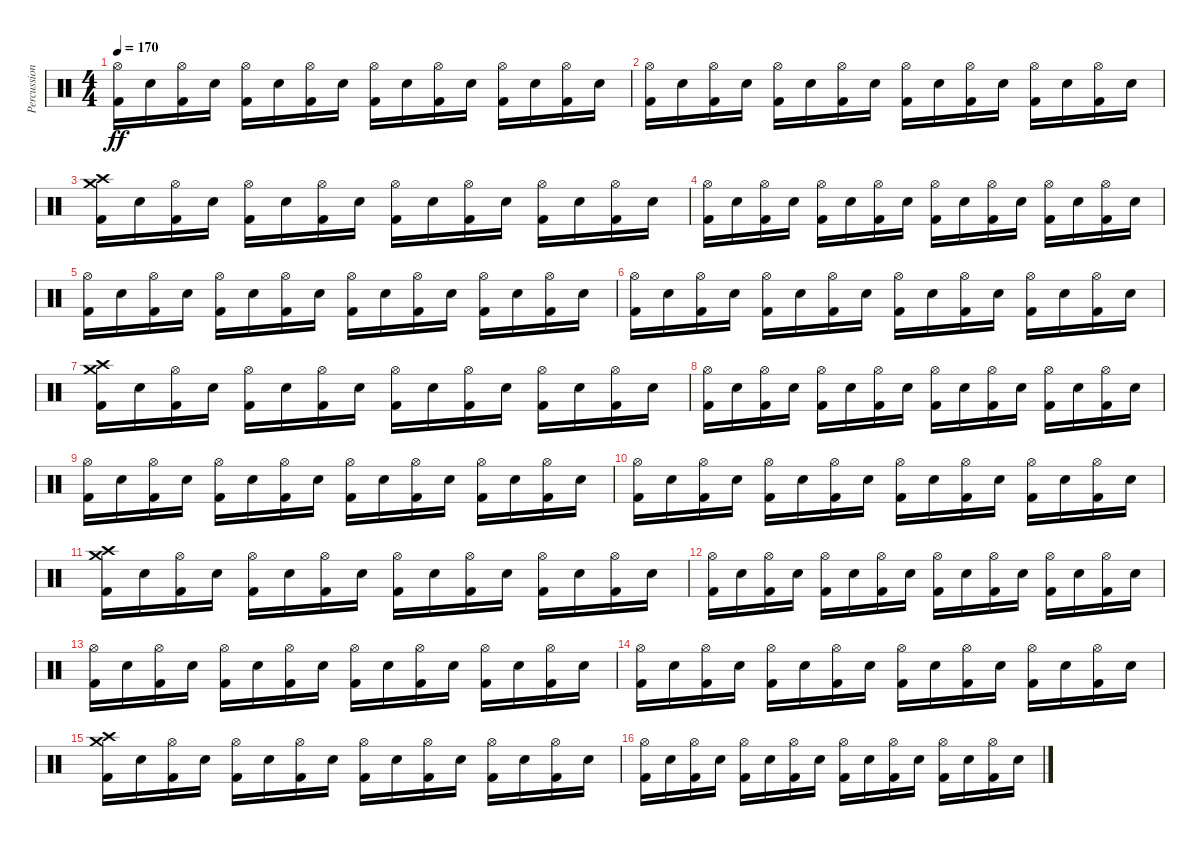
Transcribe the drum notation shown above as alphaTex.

\track ("Percussion" "Percussion") {instrument percussion}
\staff {score}
\articulation defaults
\ts (4 4)
\tempo 170
\clef neutral
\ks c
("Kick (hit) 2" "Hi-Hat (open)").16{dy ff} "Electric Snare (hit)".16 ("Kick (hit) 2" "Hi-Hat (open)").16 "Electric Snare (hit)".16 ("Kick (hit) 2" "Hi-Hat (open)").16 "Electric Snare (hit)".16 ("Kick (hit) 2" "Hi-Hat (open)").16 "Electric Snare (hit)".16 ("Kick (hit) 2" "Hi-Hat (open)").16 "Electric Snare (hit)".16 ("Kick (hit) 2" "Hi-Hat (open)").16 "Electric Snare (hit)".16 ("Kick (hit) 2" "Hi-Hat (open)").16 "Electric Snare (hit)".16 ("Kick (hit) 2" "Hi-Hat (open)").16 "Electric Snare (hit)".16 |
("Kick (hit) 2" "Hi-Hat (open)").16 "Electric Snare (hit)".16 ("Kick (hit) 2" "Hi-Hat (open)").16 "Electric Snare (hit)".16 ("Kick (hit) 2" "Hi-Hat (open)").16 "Electric Snare (hit)".16 ("Kick (hit) 2" "Hi-Hat (open)").16 "Electric Snare (hit)".16 ("Kick (hit) 2" "Hi-Hat (open)").16 "Electric Snare (hit)".16 ("Kick (hit) 2" "Hi-Hat (open)").16 "Electric Snare (hit)".16 ("Kick (hit) 2" "Hi-Hat (open)").16 "Electric Snare (hit)".16 ("Kick (hit) 2" "Hi-Hat (open)").16 "Electric Snare (hit)".16 |
("Kick (hit) 2" "Crash high (hit)" "Crash medium (hit)").16 "Electric Snare (hit)".16 ("Kick (hit) 2" "Hi-Hat (open)").16 "Electric Snare (hit)".16 ("Kick (hit) 2" "Hi-Hat (open)").16 "Electric Snare (hit)".16 ("Kick (hit) 2" "Hi-Hat (open)").16 "Electric Snare (hit)".16 ("Kick (hit) 2" "Hi-Hat (open)").16 "Electric Snare (hit)".16 ("Kick (hit) 2" "Hi-Hat (open)").16 "Electric Snare (hit)".16 ("Kick (hit) 2" "Hi-Hat (open)").16 "Electric Snare (hit)".16 ("Kick (hit) 2" "Hi-Hat (open)").16 "Electric Snare (hit)".16 |
("Kick (hit) 2" "Hi-Hat (open)").16 "Electric Snare (hit)".16 ("Kick (hit) 2" "Hi-Hat (open)").16 "Electric Snare (hit)".16 ("Kick (hit) 2" "Hi-Hat (open)").16 "Electric Snare (hit)".16 ("Kick (hit) 2" "Hi-Hat (open)").16 "Electric Snare (hit)".16 ("Kick (hit) 2" "Hi-Hat (open)").16 "Electric Snare (hit)".16 ("Kick (hit) 2" "Hi-Hat (open)").16 "Electric Snare (hit)".16 ("Kick (hit) 2" "Hi-Hat (open)").16 "Electric Snare (hit)".16 ("Kick (hit) 2" "Hi-Hat (open)").16 "Electric Snare (hit)".16 |
("Kick (hit) 2" "Hi-Hat (open)").16 "Electric Snare (hit)".16 ("Kick (hit) 2" "Hi-Hat (open)").16 "Electric Snare (hit)".16 ("Kick (hit) 2" "Hi-Hat (open)").16 "Electric Snare (hit)".16 ("Kick (hit) 2" "Hi-Hat (open)").16 "Electric Snare (hit)".16 ("Kick (hit) 2" "Hi-Hat (open)").16 "Electric Snare (hit)".16 ("Kick (hit) 2" "Hi-Hat (open)").16 "Electric Snare (hit)".16 ("Kick (hit) 2" "Hi-Hat (open)").16 "Electric Snare (hit)".16 ("Kick (hit) 2" "Hi-Hat (open)").16 "Electric Snare (hit)".16 |
("Kick (hit) 2" "Hi-Hat (open)").16 "Electric Snare (hit)".16 ("Kick (hit) 2" "Hi-Hat (open)").16 "Electric Snare (hit)".16 ("Kick (hit) 2" "Hi-Hat (open)").16 "Electric Snare (hit)".16 ("Kick (hit) 2" "Hi-Hat (open)").16 "Electric Snare (hit)".16 ("Kick (hit) 2" "Hi-Hat (open)").16 "Electric Snare (hit)".16 ("Kick (hit) 2" "Hi-Hat (open)").16 "Electric Snare (hit)".16 ("Kick (hit) 2" "Hi-Hat (open)").16 "Electric Snare (hit)".16 ("Kick (hit) 2" "Hi-Hat (open)").16 "Electric Snare (hit)".16 |
("Kick (hit) 2" "Crash medium (hit)" "Crash high (hit)").16 "Electric Snare (hit)".16 ("Kick (hit) 2" "Hi-Hat (open)").16 "Electric Snare (hit)".16 ("Kick (hit) 2" "Hi-Hat (open)").16 "Electric Snare (hit)".16 ("Kick (hit) 2" "Hi-Hat (open)").16 "Electric Snare (hit)".16 ("Kick (hit) 2" "Hi-Hat (open)").16 "Electric Snare (hit)".16 ("Kick (hit) 2" "Hi-Hat (open)").16 "Electric Snare (hit)".16 ("Kick (hit) 2" "Hi-Hat (open)").16 "Electric Snare (hit)".16 ("Kick (hit) 2" "Hi-Hat (open)").16 "Electric Snare (hit)".16 |
("Kick (hit) 2" "Hi-Hat (open)").16 "Electric Snare (hit)".16 ("Kick (hit) 2" "Hi-Hat (open)").16 "Electric Snare (hit)".16 ("Kick (hit) 2" "Hi-Hat (open)").16 "Electric Snare (hit)".16 ("Kick (hit) 2" "Hi-Hat (open)").16 "Electric Snare (hit)".16 ("Kick (hit) 2" "Hi-Hat (open)").16 "Electric Snare (hit)".16 ("Kick (hit) 2" "Hi-Hat (open)").16 "Electric Snare (hit)".16 ("Kick (hit) 2" "Hi-Hat (open)").16 "Electric Snare (hit)".16 ("Kick (hit) 2" "Hi-Hat (open)").16 "Electric Snare (hit)".16 |
("Kick (hit) 2" "Hi-Hat (open)").16 "Electric Snare (hit)".16 ("Kick (hit) 2" "Hi-Hat (open)").16 "Electric Snare (hit)".16 ("Kick (hit) 2" "Hi-Hat (open)").16 "Electric Snare (hit)".16 ("Kick (hit) 2" "Hi-Hat (open)").16 "Electric Snare (hit)".16 ("Kick (hit) 2" "Hi-Hat (open)").16 "Electric Snare (hit)".16 ("Kick (hit) 2" "Hi-Hat (open)").16 "Electric Snare (hit)".16 ("Kick (hit) 2" "Hi-Hat (open)").16 "Electric Snare (hit)".16 ("Kick (hit) 2" "Hi-Hat (open)").16 "Electric Snare (hit)".16 |
("Kick (hit) 2" "Hi-Hat (open)").16 "Electric Snare (hit)".16 ("Kick (hit) 2" "Hi-Hat (open)").16 "Electric Snare (hit)".16 ("Kick (hit) 2" "Hi-Hat (open)").16 "Electric Snare (hit)".16 ("Kick (hit) 2" "Hi-Hat (open)").16 "Electric Snare (hit)".16 ("Kick (hit) 2" "Hi-Hat (open)").16 "Electric Snare (hit)".16 ("Kick (hit) 2" "Hi-Hat (open)").16 "Electric Snare (hit)".16 ("Kick (hit) 2" "Hi-Hat (open)").16 "Electric Snare (hit)".16 ("Kick (hit) 2" "Hi-Hat (open)").16 "Electric Snare (hit)".16 |
("Kick (hit) 2" "Crash high (hit)" "Crash medium (hit)").16 "Electric Snare (hit)".16 ("Kick (hit) 2" "Hi-Hat (open)").16 "Electric Snare (hit)".16 ("Kick (hit) 2" "Hi-Hat (open)").16 "Electric Snare (hit)".16 ("Kick (hit) 2" "Hi-Hat (open)").16 "Electric Snare (hit)".16 ("Kick (hit) 2" "Hi-Hat (open)").16 "Electric Snare (hit)".16 ("Kick (hit) 2" "Hi-Hat (open)").16 "Electric Snare (hit)".16 ("Kick (hit) 2" "Hi-Hat (open)").16 "Electric Snare (hit)".16 ("Kick (hit) 2" "Hi-Hat (open)").16 "Electric Snare (hit)".16 |
("Kick (hit) 2" "Hi-Hat (open)").16 "Electric Snare (hit)".16 ("Kick (hit) 2" "Hi-Hat (open)").16 "Electric Snare (hit)".16 ("Kick (hit) 2" "Hi-Hat (open)").16 "Electric Snare (hit)".16 ("Kick (hit) 2" "Hi-Hat (open)").16 "Electric Snare (hit)".16 ("Kick (hit) 2" "Hi-Hat (open)").16 "Electric Snare (hit)".16 ("Kick (hit) 2" "Hi-Hat (open)").16 "Electric Snare (hit)".16 ("Kick (hit) 2" "Hi-Hat (open)").16 "Electric Snare (hit)".16 ("Kick (hit) 2" "Hi-Hat (open)").16 "Electric Snare (hit)".16 |
("Kick (hit) 2" "Hi-Hat (open)").16 "Electric Snare (hit)".16 ("Kick (hit) 2" "Hi-Hat (open)").16 "Electric Snare (hit)".16 ("Kick (hit) 2" "Hi-Hat (open)").16 "Electric Snare (hit)".16 ("Kick (hit) 2" "Hi-Hat (open)").16 "Electric Snare (hit)".16 ("Kick (hit) 2" "Hi-Hat (open)").16 "Electric Snare (hit)".16 ("Kick (hit) 2" "Hi-Hat (open)").16 "Electric Snare (hit)".16 ("Kick (hit) 2" "Hi-Hat (open)").16 "Electric Snare (hit)".16 ("Kick (hit) 2" "Hi-Hat (open)").16 "Electric Snare (hit)".16 |
("Kick (hit) 2" "Hi-Hat (open)").16 "Electric Snare (hit)".16 ("Kick (hit) 2" "Hi-Hat (open)").16 "Electric Snare (hit)".16 ("Kick (hit) 2" "Hi-Hat (open)").16 "Electric Snare (hit)".16 ("Kick (hit) 2" "Hi-Hat (open)").16 "Electric Snare (hit)".16 ("Kick (hit) 2" "Hi-Hat (open)").16 "Electric Snare (hit)".16 ("Kick (hit) 2" "Hi-Hat (open)").16 "Electric Snare (hit)".16 ("Kick (hit) 2" "Hi-Hat (open)").16 "Electric Snare (hit)".16 ("Kick (hit) 2" "Hi-Hat (open)").16 "Electric Snare (hit)".16 |
("Kick (hit) 2" "Crash medium (hit)" "Crash high (hit)").16 "Electric Snare (hit)".16 ("Kick (hit) 2" "Hi-Hat (open)").16 "Electric Snare (hit)".16 ("Kick (hit) 2" "Hi-Hat (open)").16 "Electric Snare (hit)".16 ("Kick (hit) 2" "Hi-Hat (open)").16 "Electric Snare (hit)".16 ("Kick (hit) 2" "Hi-Hat (open)").16 "Electric Snare (hit)".16 ("Kick (hit) 2" "Hi-Hat (open)").16 "Electric Snare (hit)".16 ("Kick (hit) 2" "Hi-Hat (open)").16 "Electric Snare (hit)".16 ("Kick (hit) 2" "Hi-Hat (open)").16 "Electric Snare (hit)".16 |
("Kick (hit) 2" "Hi-Hat (open)").16 "Electric Snare (hit)".16 ("Kick (hit) 2" "Hi-Hat (open)").16 "Electric Snare (hit)".16 ("Kick (hit) 2" "Hi-Hat (open)").16 "Electric Snare (hit)".16 ("Kick (hit) 2" "Hi-Hat (open)").16 "Electric Snare (hit)".16 ("Kick (hit) 2" "Hi-Hat (open)").16 "Electric Snare (hit)".16 ("Kick (hit) 2" "Hi-Hat (open)").16 "Electric Snare (hit)".16 ("Kick (hit) 2" "Hi-Hat (open)").16 "Electric Snare (hit)".16 ("Kick (hit) 2" "Hi-Hat (open)").16 "Electric Snare (hit)".16
